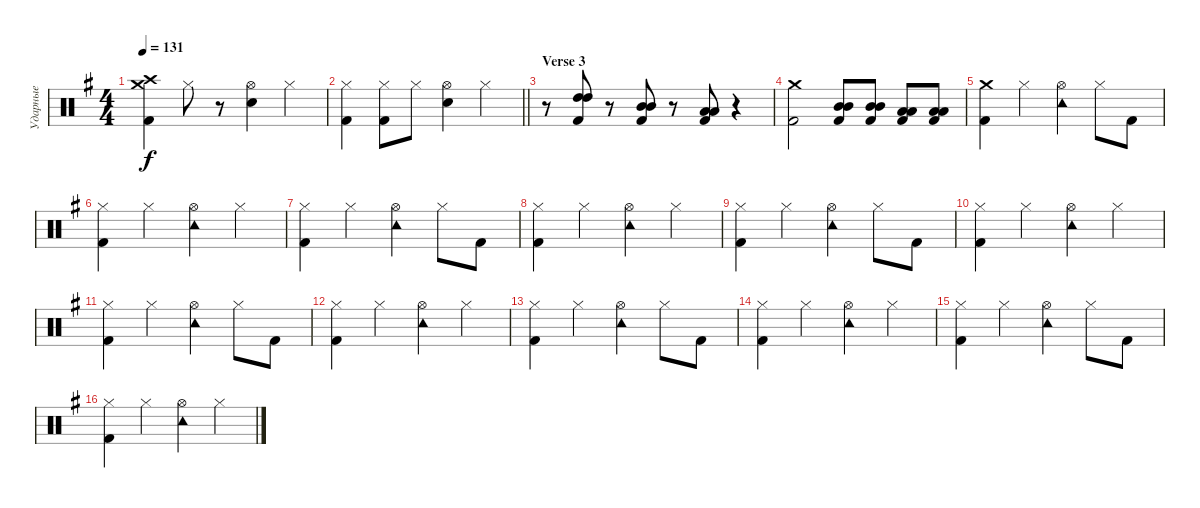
\track ("Ударные" "Ударные") {instrument percussion}
\staff {score}
\articulation defaults
\ts (4 4)
\tempo 131
\clef neutral
\ks eminor
("Crash medium (hit)" "Crash high (hit)" "Kick (hit) 2").4{dy f} "Hi-Hat (closed)".8 r.8 ("Hi-Hat (open)" "Snare (hit) 2").4 "Hi-Hat (closed)".4 |
\barLineRight lightlight
("Hi-Hat (closed)" "Kick (hit) 2").4 ("Hi-Hat (closed)" "Kick (hit) 2").8 "Hi-Hat (closed)".8 ("Hi-Hat (open)" "Snare (hit) 2").4 "Hi-Hat (closed)".4 |
\section ("" "Verse 3")
r.8 ("High Tom (hit)" "High Tom (hit)" "Kick (hit) 2").8 r.8 ("Mid Tom (hit)" "Mid Tom (hit)" "Kick (hit) 2").8 r.8 ("Low Tom (hit)" "Low Tom (hit)" "Kick (hit) 2").8 r.4 |
("Kick (hit) 2" "Crash medium (hit)").2 ("Mid Tom (hit)" "Mid Tom (hit)" "Kick (hit) 2").8 ("Mid Tom (hit)" "Mid Tom (hit)" "Kick (hit) 2").8 ("Low Tom (hit)" "Low Tom (hit)" "Kick (hit) 2").8 ("Low Tom (hit)" "Low Tom (hit)" "Kick (hit) 2").8 |
("Crash medium (hit)" "Kick (hit) 2").4 "Hi-Hat (closed)".4 ("Tambourine (hit)" "Hi-Hat (open)").4 "Hi-Hat (closed)".8 "Kick (hit) 2".8 |
("Hi-Hat (closed)" "Kick (hit) 2").4 "Hi-Hat (closed)".4 ("Tambourine (hit)" "Hi-Hat (open)").4 "Hi-Hat (closed)".4 |
("Hi-Hat (closed)" "Kick (hit) 2").4 "Hi-Hat (closed)".4 ("Tambourine (hit)" "Hi-Hat (open)").4 "Hi-Hat (closed)".8 "Kick (hit) 2".8 |
("Hi-Hat (closed)" "Kick (hit) 2").4 "Hi-Hat (closed)".4 ("Tambourine (hit)" "Hi-Hat (open)").4 "Hi-Hat (closed)".4 |
("Hi-Hat (closed)" "Kick (hit) 2").4 "Hi-Hat (closed)".4 ("Tambourine (hit)" "Hi-Hat (open)").4 "Hi-Hat (closed)".8 "Kick (hit) 2".8 |
("Hi-Hat (closed)" "Kick (hit) 2").4 "Hi-Hat (closed)".4 ("Tambourine (hit)" "Hi-Hat (open)").4 "Hi-Hat (closed)".4 |
("Hi-Hat (closed)" "Kick (hit) 2").4 "Hi-Hat (closed)".4 ("Tambourine (hit)" "Hi-Hat (open)").4 "Hi-Hat (closed)".8 "Kick (hit) 2".8 |
("Hi-Hat (closed)" "Kick (hit) 2").4 "Hi-Hat (closed)".4 ("Tambourine (hit)" "Hi-Hat (open)").4 "Hi-Hat (closed)".4 |
("Hi-Hat (closed)" "Kick (hit) 2").4 "Hi-Hat (closed)".4 ("Tambourine (hit)" "Hi-Hat (open)").4 "Hi-Hat (closed)".8 "Kick (hit) 2".8 |
("Hi-Hat (closed)" "Kick (hit) 2").4 "Hi-Hat (closed)".4 ("Tambourine (hit)" "Hi-Hat (open)").4 "Hi-Hat (closed)".4 |
("Hi-Hat (closed)" "Kick (hit) 2").4 "Hi-Hat (closed)".4 ("Tambourine (hit)" "Hi-Hat (open)").4 "Hi-Hat (closed)".8 "Kick (hit) 2".8 |
("Hi-Hat (closed)" "Kick (hit) 2").4 "Hi-Hat (closed)".4 ("Tambourine (hit)" "Hi-Hat (open)").4 "Hi-Hat (closed)".4
